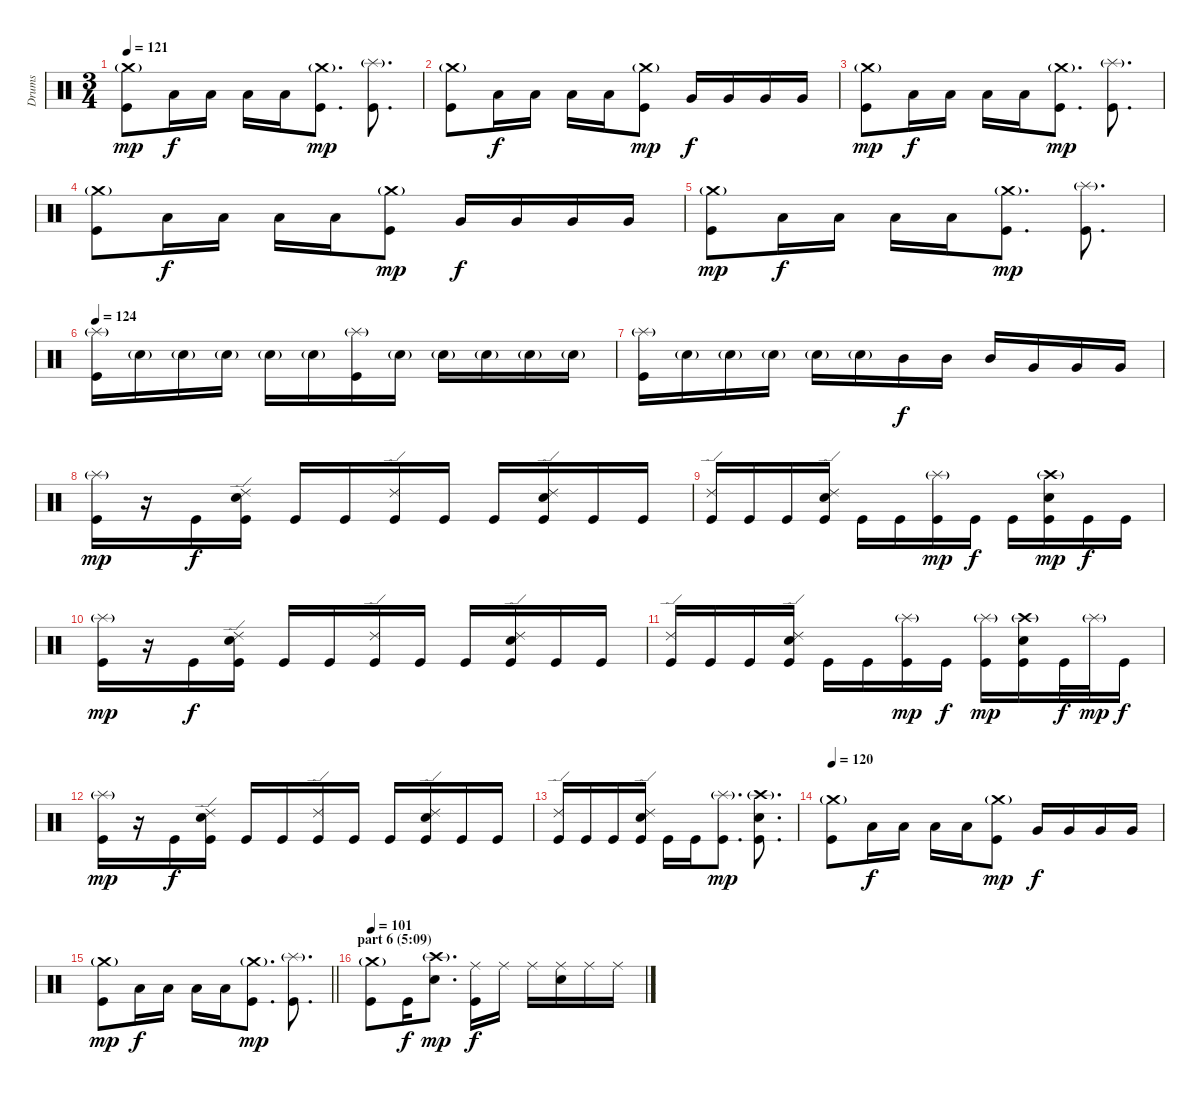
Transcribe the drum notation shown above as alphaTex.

\track ("Drums" "Drums") {instrument percussion}
\staff {score}
\articulation defaults
\ts (3 4)
\tempo 121
\clef neutral
\ks c
("Crash medium (hit)"{g} "Kick (hit)").8{dy mp} "Low Floor Tom (hit)".16{dy f} "Low Floor Tom (hit)".16 "Low Floor Tom (hit)".16 "Low Floor Tom (hit)".16 ("Crash medium (hit)"{g} "Kick (hit)").8{d dy mp} ("Splash (hit)"{g} "Kick (hit)").8{d} |
("Crash medium (hit)"{g} "Kick (hit)").8 "Low Tom (hit)".16{dy f} "Low Tom (hit)".16 "Low Tom (hit)".16 "Low Tom (hit)".16 ("Crash medium (hit)"{g} "Kick (hit)").8{dy mp} "Very Low Tom (hit)".16{dy f} "Very Low Tom (hit)".16 "Very Low Tom (hit)".16 "Very Low Tom (hit)".16 |
("Crash medium (hit)"{g} "Kick (hit)").8{dy mp} "Low Floor Tom (hit)".16{dy f} "Low Floor Tom (hit)".16 "Low Floor Tom (hit)".16 "Low Floor Tom (hit)".16 ("Crash medium (hit)"{g} "Kick (hit)").8{d dy mp} ("Splash (hit)"{g} "Kick (hit)").8{d} |
("Crash medium (hit)"{g} "Kick (hit)").8 "Low Tom (hit)".16{dy f} "Low Tom (hit)".16 "Low Tom (hit)".16 "Low Tom (hit)".16 ("Crash medium (hit)"{g} "Kick (hit)").8{dy mp} "Very Low Tom (hit)".16{dy f} "Very Low Tom (hit)".16 "Very Low Tom (hit)".16 "Very Low Tom (hit)".16 |
("Crash medium (hit)"{g} "Kick (hit)").8{dy mp} "Low Floor Tom (hit)".16{dy f} "Low Floor Tom (hit)".16 "Low Floor Tom (hit)".16 "Low Floor Tom (hit)".16 ("Crash medium (hit)"{g} "Kick (hit)").8{d dy mp} ("Splash (hit)"{g} "Kick (hit)").8{d} |
\tempo 124
("Splash (hit)"{g} "Kick (hit)").16 "Snare (hit) 2"{g}.16 "Snare (hit) 2"{g}.16 "Snare (hit) 2"{g}.16 "Snare (hit) 2"{g}.16 "Snare (hit) 2"{g}.16 ("Splash (hit)"{g} "Kick (hit)").16 "Snare (hit) 2"{g}.16 "Snare (hit) 2"{g}.16 "Snare (hit) 2"{g}.16 "Snare (hit) 2"{g}.16 "Snare (hit) 2"{g}.16 |
("Splash (hit)"{g} "Kick (hit)").16 "Snare (hit) 2"{g}.16 "Snare (hit) 2"{g}.16 "Snare (hit) 2"{g}.16 "Snare (hit) 2"{g}.16 "Snare (hit) 2"{g}.16 "Mid Tom (hit)".16{dy f} "Mid Tom (hit)".16 "Mid Tom (hit)".16 "Very Low Tom (hit)".16 "Very Low Tom (hit)".16 "Very Low Tom (hit)".16 |
("Splash (hit)"{g} "Kick (hit)").16{dy mp} r.16 "Kick (hit)".16{dy f} ("Ride (edge) 2" "Snare (hit) 2" "Kick (hit)").16 "Kick (hit)".16 "Kick (hit)".16 ("Ride (edge) 2" "Kick (hit)").16 "Kick (hit)".16 "Kick (hit)".16 ("Ride (edge) 2" "Snare (hit) 2" "Kick (hit)").16 "Kick (hit)".16 "Kick (hit)".16 |
("Ride (edge) 2" "Kick (hit)").16 "Kick (hit)".16 "Kick (hit)".16 ("Ride (edge) 2" "Snare (hit) 2" "Kick (hit)").16 "Kick (hit)".16 "Kick (hit)".16 ("Splash (hit)"{g} "Kick (hit)").16{dy mp} "Kick (hit)".16{dy f} "Kick (hit)".16 ("Crash high (hit)"{g} "Snare (hit) 2" "Kick (hit)").16{dy mp} "Kick (hit)".16{dy f} "Kick (hit)".16 |
("Splash (hit)"{g} "Kick (hit)").16{dy mp} r.16 "Kick (hit)".16{dy f} ("Ride (edge) 2" "Snare (hit) 2" "Kick (hit)").16 "Kick (hit)".16 "Kick (hit)".16 ("Ride (edge) 2" "Kick (hit)").16 "Kick (hit)".16 "Kick (hit)".16 ("Ride (edge) 2" "Snare (hit) 2" "Kick (hit)").16 "Kick (hit)".16 "Kick (hit)".16 |
("Ride (edge) 2" "Kick (hit)").16 "Kick (hit)".16 "Kick (hit)".16 ("Ride (edge) 2" "Snare (hit) 2" "Kick (hit)").16 "Kick (hit)".16 "Kick (hit)".16 ("Splash (hit)"{g} "Kick (hit)").16{dy mp} "Kick (hit)".16{dy f} ("Splash (hit)"{g} "Kick (hit)").16{dy mp} ("Crash high (hit)"{g} "Snare (hit) 2" "Kick (hit)").16 "Kick (hit)".32{dy f} "Splash (hit)"{g}.32{dy mp} "Kick (hit)".16{dy f} |
("Splash (hit)"{g} "Kick (hit)").16{dy mp} r.16 "Kick (hit)".16{dy f} ("Ride (edge) 2" "Snare (hit) 2" "Kick (hit)").16 "Kick (hit)".16 "Kick (hit)".16 ("Ride (edge) 2" "Kick (hit)").16 "Kick (hit)".16 "Kick (hit)".16 ("Ride (edge) 2" "Snare (hit) 2" "Kick (hit)").16 "Kick (hit)".16 "Kick (hit)".16 |
("Ride (edge) 2" "Kick (hit)").16 "Kick (hit)".16 "Kick (hit)".16 ("Ride (edge) 2" "Snare (hit) 2" "Kick (hit)").16 "Kick (hit)".16 "Kick (hit)".16 ("Splash (hit)"{g} "Kick (hit)").8{d dy mp} ("Crash high (hit)"{g} "Snare (hit) 2" "Kick (hit)").8{d} |
\tempo 120
("Crash medium (hit)"{g} "Kick (hit)").8 "Low Tom (hit)".16{dy f} "Low Tom (hit)".16 "Low Tom (hit)".16 "Low Tom (hit)".16 ("Crash medium (hit)"{g} "Kick (hit)").8{dy mp} "Very Low Tom (hit)".16{dy f} "Very Low Tom (hit)".16 "Very Low Tom (hit)".16 "Very Low Tom (hit)".16 |
\barLineRight lightlight
("Crash medium (hit)"{g} "Kick (hit)").8{dy mp} "Low Floor Tom (hit)".16{dy f} "Low Floor Tom (hit)".16 "Low Floor Tom (hit)".16 "Low Floor Tom (hit)".16 ("Crash medium (hit)"{g} "Kick (hit)").8{d dy mp} ("Splash (hit)"{g} "Kick (hit)").8{d} |
\section ("" "part 6 (5:09)")
\tempo 101
("Crash medium (hit)"{g} "Kick (hit)").8 "Kick (hit)".16{dy f} ("Crash high (hit)"{g} "Snare (hit) 2").8{d dy mp} ("Ride (middle)" "Kick (hit)").16{dy f} "Ride (middle)".16 "Ride (middle)".16 ("Ride (middle)" "Snare (hit) 2").16 "Ride (middle)".16 "Ride (middle)".16
